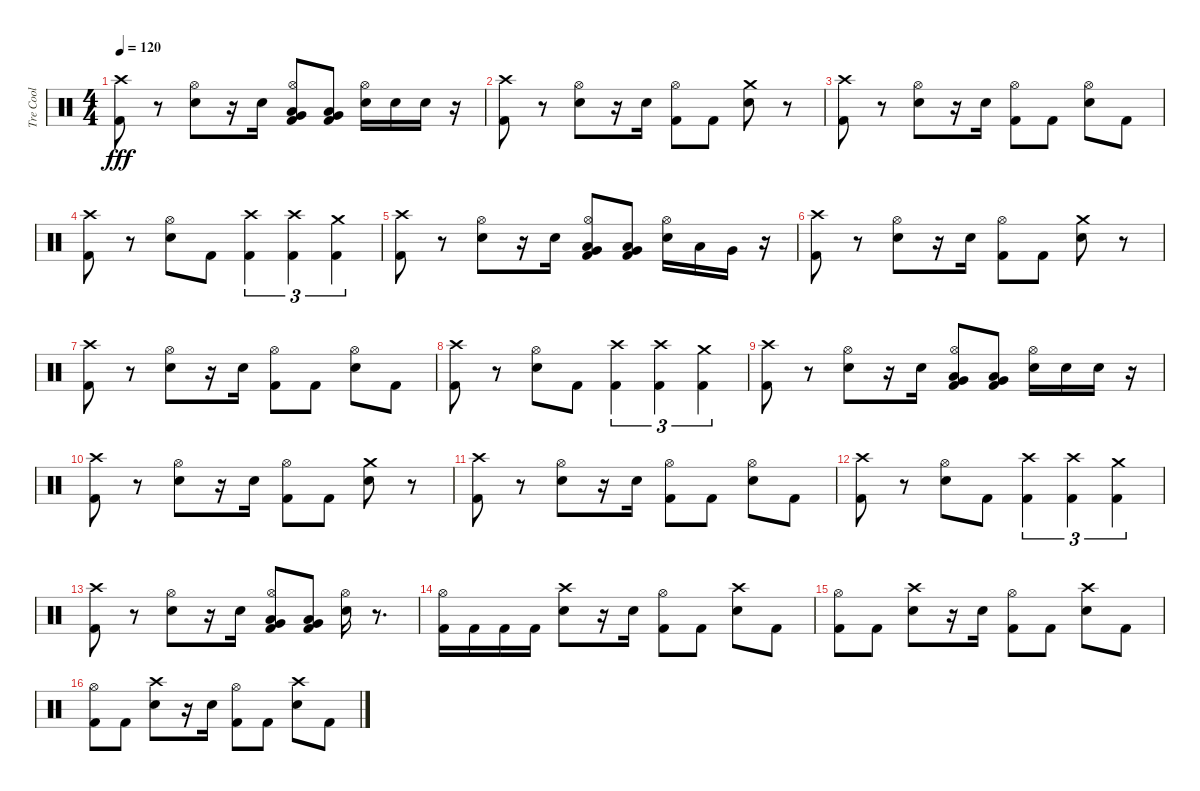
\track ("Tre Cool" "Tre Cool") {instrument percussion}
\staff {score}
\articulation defaults
\ts (4 4)
\tempo 120
\clef neutral
\ks c
("Kick (hit) 2" "Crash high (hit)").8{dy fff} r.8 ("Electric Snare (hit)" "Hi-Hat (open)").8 r.16 "Electric Snare (hit)".16 ("Kick (hit) 2" "Very Low Tom (hit)" "Low Floor Tom (hit)" "Hi-Hat (open)").8 ("Kick (hit) 2" "Very Low Tom (hit)" "Low Floor Tom (hit)").8 ("Hi-Hat (open)" "Electric Snare (hit)").16 "Electric Snare (hit)".16 "Electric Snare (hit)".16 r.16 |
("Kick (hit) 2" "Crash high (hit)").8 r.8 ("Electric Snare (hit)" "Hi-Hat (open)").8 r.16 "Electric Snare (hit)".16 ("Kick (hit) 2" "Hi-Hat (open)").8 "Kick (hit) 2".8 ("Electric Snare (hit)" "Crash medium (hit)").8 r.8 |
("Kick (hit) 2" "Crash high (hit)").8 r.8 ("Electric Snare (hit)" "Hi-Hat (open)").8 r.16 "Electric Snare (hit)".16 ("Kick (hit) 2" "Hi-Hat (open)").8 "Kick (hit) 2".8 ("Electric Snare (hit)" "Hi-Hat (open)").8 "Kick (hit) 2".8 |
("Kick (hit) 2" "Crash high (hit)").8 r.8 ("Electric Snare (hit)" "Hi-Hat (open)").8 "Kick (hit) 2".8 ("Kick (hit) 2" "Crash high (hit)").4{tu (3 2)} ("Kick (hit) 2" "Crash high (hit)").4{tu (3 2)} ("Kick (hit) 2" "Crash medium (hit)").4{tu (3 2)} |
("Kick (hit) 2" "Crash high (hit)").8 r.8 ("Electric Snare (hit)" "Hi-Hat (open)").8 r.16 "Electric Snare (hit)".16 ("Kick (hit) 2" "Very Low Tom (hit)" "Low Floor Tom (hit)" "Hi-Hat (open)").8 ("Kick (hit) 2" "Very Low Tom (hit)" "Low Floor Tom (hit)").8 ("Electric Snare (hit)" "Hi-Hat (open)").16 "Low Tom (hit)".16 "Very Low Tom (hit)".16 r.16 |
("Kick (hit) 2" "Crash high (hit)").8 r.8 ("Electric Snare (hit)" "Hi-Hat (open)").8 r.16 "Electric Snare (hit)".16 ("Kick (hit) 2" "Hi-Hat (open)").8 "Kick (hit) 2".8 ("Electric Snare (hit)" "Crash medium (hit)").8 r.8 |
("Kick (hit) 2" "Crash high (hit)").8 r.8 ("Electric Snare (hit)" "Hi-Hat (open)").8 r.16 "Electric Snare (hit)".16 ("Kick (hit) 2" "Hi-Hat (open)").8 "Kick (hit) 2".8 ("Electric Snare (hit)" "Hi-Hat (open)").8 "Kick (hit) 2".8 |
("Kick (hit) 2" "Crash high (hit)").8 r.8 ("Electric Snare (hit)" "Hi-Hat (open)").8 "Kick (hit) 2".8 ("Kick (hit) 2" "Crash high (hit)").4{tu (3 2)} ("Kick (hit) 2" "Crash high (hit)").4{tu (3 2)} ("Kick (hit) 2" "Crash medium (hit)").4{tu (3 2)} |
("Kick (hit) 2" "Crash high (hit)").8 r.8 ("Electric Snare (hit)" "Hi-Hat (open)").8 r.16 "Electric Snare (hit)".16 ("Kick (hit) 2" "Very Low Tom (hit)" "Low Floor Tom (hit)" "Hi-Hat (open)").8 ("Kick (hit) 2" "Very Low Tom (hit)" "Low Floor Tom (hit)").8 ("Electric Snare (hit)" "Hi-Hat (open)").16 "Electric Snare (hit)".16 "Electric Snare (hit)".16 r.16 |
("Kick (hit) 2" "Crash high (hit)").8 r.8 ("Electric Snare (hit)" "Hi-Hat (open)").8 r.16 "Electric Snare (hit)".16 ("Kick (hit) 2" "Hi-Hat (open)").8 "Kick (hit) 2".8 ("Electric Snare (hit)" "Crash medium (hit)").8 r.8 |
("Kick (hit) 2" "Crash high (hit)").8 r.8 ("Electric Snare (hit)" "Hi-Hat (open)").8 r.16 "Electric Snare (hit)".16 ("Kick (hit) 2" "Hi-Hat (open)").8 "Kick (hit) 2".8 ("Electric Snare (hit)" "Hi-Hat (open)").8 "Kick (hit) 2".8 |
("Kick (hit) 2" "Crash high (hit)").8 r.8 ("Electric Snare (hit)" "Hi-Hat (open)").8 "Kick (hit) 2".8 ("Kick (hit) 2" "Crash high (hit)").4{tu (3 2)} ("Kick (hit) 2" "Crash high (hit)").4{tu (3 2)} ("Kick (hit) 2" "Crash medium (hit)").4{tu (3 2)} |
("Kick (hit) 2" "Crash high (hit)").8 r.8 ("Electric Snare (hit)" "Hi-Hat (open)").8 r.16 "Electric Snare (hit)".16 ("Kick (hit) 2" "Very Low Tom (hit)" "Low Floor Tom (hit)" "Hi-Hat (open)").8 ("Kick (hit) 2" "Very Low Tom (hit)" "Low Floor Tom (hit)").8 ("Electric Snare (hit)" "Hi-Hat (open)").16 r.8{d} |
("Kick (hit) 2" "Hi-Hat (open)").16 "Kick (hit) 2".16 "Kick (hit) 2".16 "Kick (hit) 2".16 ("Crash high (hit)" "Electric Snare (hit)").8 r.16 "Electric Snare (hit)".16 ("Kick (hit) 2" "Hi-Hat (open)").8 "Kick (hit) 2".8 ("Electric Snare (hit)" "Crash high (hit)").8 "Kick (hit) 2".8 |
("Kick (hit) 2" "Hi-Hat (open)").8 "Kick (hit) 2".8 ("Electric Snare (hit)" "Crash high (hit)").8 r.16 "Electric Snare (hit)".16 ("Kick (hit) 2" "Hi-Hat (open)").8 "Kick (hit) 2".8 ("Electric Snare (hit)" "Crash high (hit)").8 "Kick (hit) 2".8 |
("Kick (hit) 2" "Hi-Hat (open)").8 "Kick (hit) 2".8 ("Electric Snare (hit)" "Crash high (hit)").8 r.16 "Electric Snare (hit)".16 ("Kick (hit) 2" "Hi-Hat (open)").8 "Kick (hit) 2".8 ("Electric Snare (hit)" "Crash high (hit)").8 "Kick (hit) 2".8
